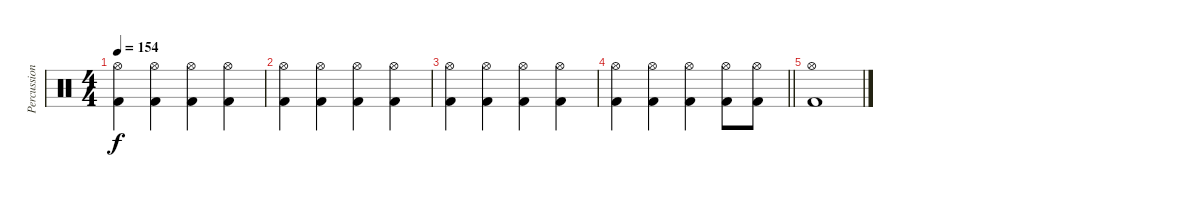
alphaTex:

\track ("Percussion" "Percussion") {instrument percussion}
\staff {score}
\articulation defaults
\ts (4 4)
\tempo 154
\clef neutral
\ks c
("Hi-Hat (open)" "Kick (hit) 2").4{dy f} ("Hi-Hat (open)" "Kick (hit) 2").4 ("Hi-Hat (open)" "Kick (hit) 2").4 ("Hi-Hat (open)" "Kick (hit) 2").4 |
("Hi-Hat (open)" "Kick (hit) 2").4 ("Hi-Hat (open)" "Kick (hit) 2").4 ("Hi-Hat (open)" "Kick (hit) 2").4 ("Hi-Hat (open)" "Kick (hit) 2").4 |
("Hi-Hat (open)" "Kick (hit) 2").4 ("Hi-Hat (open)" "Kick (hit) 2").4 ("Hi-Hat (open)" "Kick (hit) 2").4 ("Hi-Hat (open)" "Kick (hit) 2").4 |
\barLineRight lightlight
("Hi-Hat (open)" "Kick (hit) 2").4 ("Hi-Hat (open)" "Kick (hit) 2").4 ("Hi-Hat (open)" "Kick (hit) 2").4 ("Hi-Hat (open)" "Kick (hit) 2").8 ("Hi-Hat (open)" "Kick (hit) 2").8 |
("Hi-Hat (open)" "Kick (hit) 2").1
